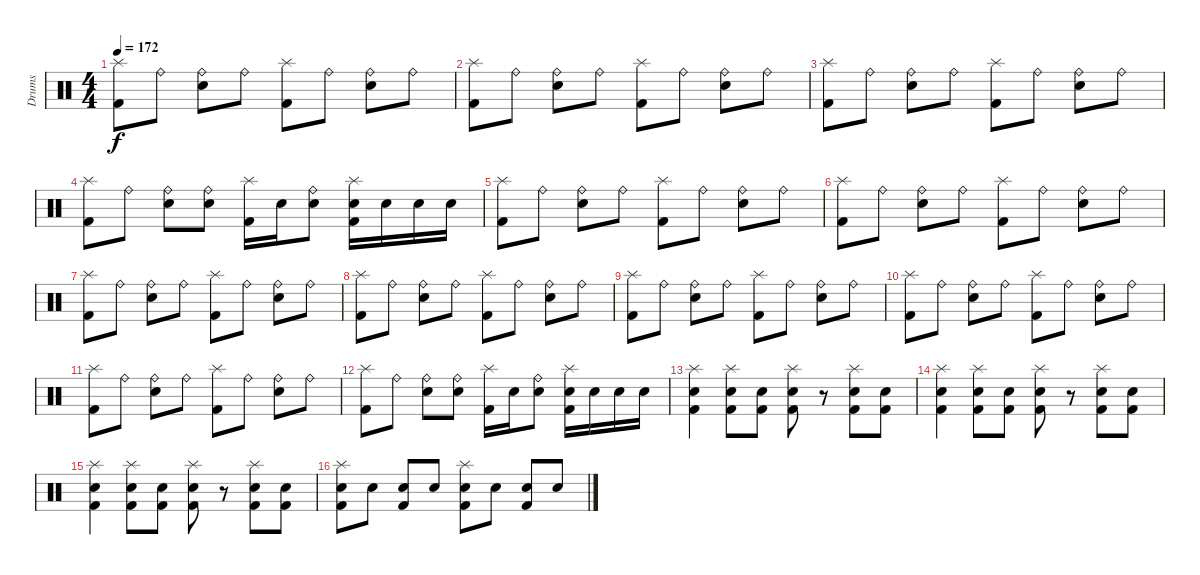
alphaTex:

\track ("Drums" "Drums") {instrument percussion}
\staff {score}
\articulation defaults
\ts (4 4)
\tempo 172
\clef neutral
\ks c
("Splash (hit)" "Kick (hit) 2").8{dy f} "Ride (bell)".8 ("Ride (bell)" "Snare (hit) 2").8 "Ride (bell)".8 ("Splash (hit)" "Kick (hit) 2").8 "Ride (bell)".8 ("Ride (bell)" "Snare (hit) 2").8 "Ride (bell)".8 |
("Splash (hit)" "Kick (hit) 2").8 "Ride (bell)".8 ("Ride (bell)" "Snare (hit) 2").8 "Ride (bell)".8 ("Splash (hit)" "Kick (hit) 2").8 "Ride (bell)".8 ("Ride (bell)" "Snare (hit) 2").8 "Ride (bell)".8 |
("Splash (hit)" "Kick (hit) 2").8 "Ride (bell)".8 ("Ride (bell)" "Snare (hit) 2").8 "Ride (bell)".8 ("Splash (hit)" "Kick (hit) 2").8 "Ride (bell)".8 ("Ride (bell)" "Snare (hit) 2").8 "Ride (bell)".8 |
("Splash (hit)" "Kick (hit) 2").8 "Ride (bell)".8 ("Ride (bell)" "Snare (hit) 2").8 ("Ride (bell)" "Snare (hit) 2").8 ("Splash (hit)" "Kick (hit) 2").16 "Snare (hit) 2".16 ("Ride (bell)" "Snare (hit) 2").8 ("Splash (hit)" "Snare (hit) 2" "Kick (hit) 2").16 "Snare (hit) 2".16 "Snare (hit) 2".16 "Snare (hit) 2".16 |
("Splash (hit)" "Kick (hit) 2").8 "Ride (bell)".8 ("Ride (bell)" "Snare (hit) 2").8 "Ride (bell)".8 ("Splash (hit)" "Kick (hit) 2").8 "Ride (bell)".8 ("Ride (bell)" "Snare (hit) 2").8 "Ride (bell)".8 |
("Splash (hit)" "Kick (hit) 2").8 "Ride (bell)".8 ("Ride (bell)" "Snare (hit) 2").8 "Ride (bell)".8 ("Splash (hit)" "Kick (hit) 2").8 "Ride (bell)".8 ("Ride (bell)" "Snare (hit) 2").8 "Ride (bell)".8 |
("Splash (hit)" "Kick (hit) 2").8 "Ride (bell)".8 ("Ride (bell)" "Snare (hit) 2").8 "Ride (bell)".8 ("Splash (hit)" "Kick (hit) 2").8 "Ride (bell)".8 ("Ride (bell)" "Snare (hit) 2").8 "Ride (bell)".8 |
("Splash (hit)" "Kick (hit) 2").8 "Ride (bell)".8 ("Ride (bell)" "Snare (hit) 2").8 "Ride (bell)".8 ("Splash (hit)" "Kick (hit) 2").8 "Ride (bell)".8 ("Ride (bell)" "Snare (hit) 2").8 "Ride (bell)".8 |
("Splash (hit)" "Kick (hit) 2").8 "Ride (bell)".8 ("Ride (bell)" "Snare (hit) 2").8 "Ride (bell)".8 ("Splash (hit)" "Kick (hit) 2").8 "Ride (bell)".8 ("Ride (bell)" "Snare (hit) 2").8 "Ride (bell)".8 |
("Splash (hit)" "Kick (hit) 2").8 "Ride (bell)".8 ("Ride (bell)" "Snare (hit) 2").8 "Ride (bell)".8 ("Splash (hit)" "Kick (hit) 2").8 "Ride (bell)".8 ("Ride (bell)" "Snare (hit) 2").8 "Ride (bell)".8 |
("Splash (hit)" "Kick (hit) 2").8 "Ride (bell)".8 ("Ride (bell)" "Snare (hit) 2").8 "Ride (bell)".8 ("Splash (hit)" "Kick (hit) 2").8 "Ride (bell)".8 ("Ride (bell)" "Snare (hit) 2").8 "Ride (bell)".8 |
("Splash (hit)" "Kick (hit) 2").8 "Ride (bell)".8 ("Ride (bell)" "Snare (hit) 2").8 ("Ride (bell)" "Snare (hit) 2").8 ("Splash (hit)" "Kick (hit) 2").16 "Snare (hit) 2".16 ("Ride (bell)" "Snare (hit) 2").8 ("Splash (hit)" "Snare (hit) 2" "Kick (hit) 2").16 "Snare (hit) 2".16 "Snare (hit) 2".16 "Snare (hit) 2".16 |
("Splash (hit)" "Kick (hit) 2" "Electric Snare (hit)").4 ("Splash (hit)" "Kick (hit) 2" "Electric Snare (hit)").8 ("Kick (hit) 2" "Electric Snare (hit)").8 ("Splash (hit)" "Kick (hit) 2" "Electric Snare (hit)").8 r.8 ("Splash (hit)" "Kick (hit) 2" "Electric Snare (hit)").8 ("Kick (hit) 2" "Electric Snare (hit)").8 |
("Splash (hit)" "Kick (hit) 2" "Electric Snare (hit)").4 ("Splash (hit)" "Kick (hit) 2" "Electric Snare (hit)").8 ("Kick (hit) 2" "Electric Snare (hit)").8 ("Splash (hit)" "Kick (hit) 2" "Electric Snare (hit)").8 r.8 ("Splash (hit)" "Kick (hit) 2" "Electric Snare (hit)").8 ("Kick (hit) 2" "Electric Snare (hit)").8 |
("Splash (hit)" "Kick (hit) 2" "Electric Snare (hit)").4 ("Splash (hit)" "Kick (hit) 2" "Electric Snare (hit)").8 ("Kick (hit) 2" "Electric Snare (hit)").8 ("Splash (hit)" "Kick (hit) 2" "Electric Snare (hit)").8 r.8 ("Splash (hit)" "Kick (hit) 2" "Electric Snare (hit)").8 ("Kick (hit) 2" "Electric Snare (hit)").8 |
("Splash (hit)" "Snare (hit) 2" "Kick (hit) 2").8 "Snare (hit) 2".8 ("Snare (hit) 2" "Kick (hit) 2").8 "Snare (hit) 2".8 ("Splash (hit)" "Snare (hit) 2" "Kick (hit) 2").8 "Snare (hit) 2".8 ("Snare (hit) 2" "Kick (hit) 2").8 "Snare (hit) 2".8
